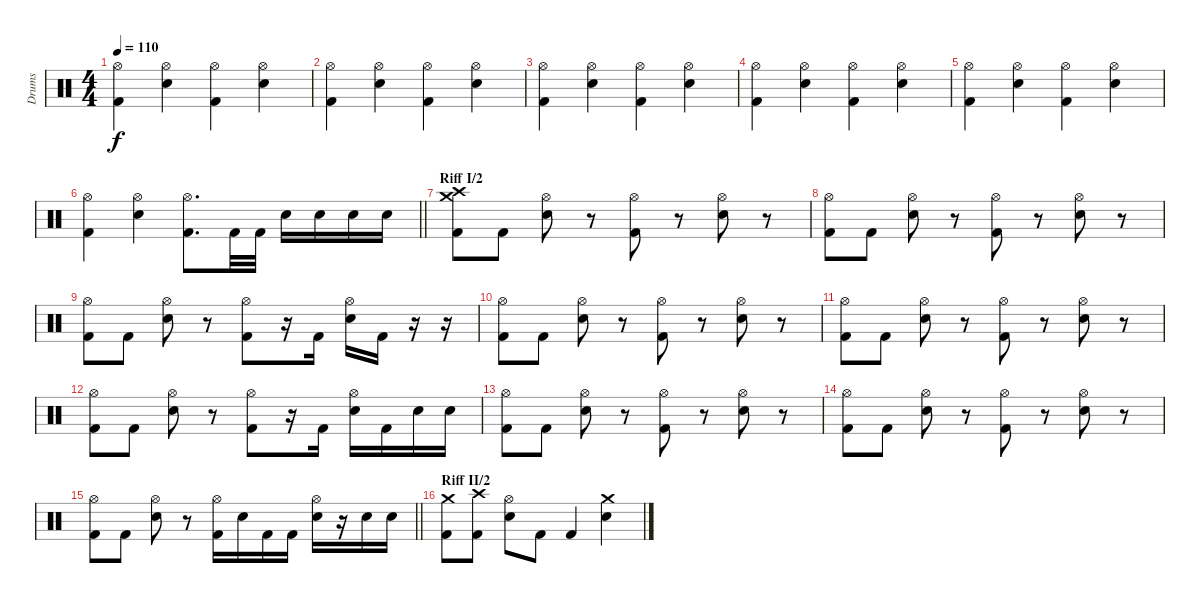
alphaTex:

\track ("Drums" "Drums") {instrument percussion}
\staff {score}
\articulation defaults
\ts (4 4)
\tempo 110
\clef neutral
\ks c
("Hi-Hat (open)" "Kick (hit) 2").4{dy f} ("Hi-Hat (open)" "Snare (hit) 2").4 ("Hi-Hat (open)" "Kick (hit) 2").4 ("Hi-Hat (open)" "Snare (hit) 2").4 |
("Hi-Hat (open)" "Kick (hit) 2").4 ("Hi-Hat (open)" "Snare (hit) 2").4 ("Hi-Hat (open)" "Kick (hit) 2").4 ("Hi-Hat (open)" "Snare (hit) 2").4 |
("Hi-Hat (open)" "Kick (hit) 2").4 ("Hi-Hat (open)" "Snare (hit) 2").4 ("Hi-Hat (open)" "Kick (hit) 2").4 ("Hi-Hat (open)" "Snare (hit) 2").4 |
("Hi-Hat (open)" "Kick (hit) 2").4 ("Hi-Hat (open)" "Snare (hit) 2").4 ("Hi-Hat (open)" "Kick (hit) 2").4 ("Hi-Hat (open)" "Snare (hit) 2").4 |
("Hi-Hat (open)" "Kick (hit) 2").4 ("Hi-Hat (open)" "Snare (hit) 2").4 ("Hi-Hat (open)" "Kick (hit) 2").4 ("Hi-Hat (open)" "Snare (hit) 2").4 |
\barLineRight lightlight
("Hi-Hat (open)" "Kick (hit) 2").4 ("Hi-Hat (open)" "Snare (hit) 2").4 ("Hi-Hat (open)" "Kick (hit) 2").8{d} "Kick (hit) 2".32 "Kick (hit) 2".32 "Snare (hit) 2".16 "Snare (hit) 2".16 "Snare (hit) 2".16 "Snare (hit) 2".16 |
\section ("" "Riff I/2")
("Crash medium (hit)" "Crash high (hit)" "Kick (hit) 2").8 "Kick (hit) 2".8 ("Hi-Hat (open)" "Snare (hit) 2").8 r.8 ("Hi-Hat (open)" "Kick (hit) 2").8 r.8 ("Hi-Hat (open)" "Snare (hit) 2").8 r.8 |
("Hi-Hat (open)" "Kick (hit) 2").8 "Kick (hit) 2".8 ("Hi-Hat (open)" "Snare (hit) 2").8 r.8 ("Hi-Hat (open)" "Kick (hit) 2").8 r.8 ("Hi-Hat (open)" "Snare (hit) 2").8 r.8 |
("Hi-Hat (open)" "Kick (hit) 2").8 "Kick (hit) 2".8 ("Hi-Hat (open)" "Snare (hit) 2").8 r.8 ("Hi-Hat (open)" "Kick (hit) 2").8 r.16 "Kick (hit) 2".16 ("Hi-Hat (open)" "Snare (hit) 2").16 "Kick (hit) 2".16 r.16 r.16 |
("Hi-Hat (open)" "Kick (hit) 2").8 "Kick (hit) 2".8 ("Hi-Hat (open)" "Snare (hit) 2").8 r.8 ("Hi-Hat (open)" "Kick (hit) 2").8 r.8 ("Hi-Hat (open)" "Snare (hit) 2").8 r.8 |
("Hi-Hat (open)" "Kick (hit) 2").8 "Kick (hit) 2".8 ("Hi-Hat (open)" "Snare (hit) 2").8 r.8 ("Hi-Hat (open)" "Kick (hit) 2").8 r.8 ("Hi-Hat (open)" "Snare (hit) 2").8 r.8 |
("Hi-Hat (open)" "Kick (hit) 2").8 "Kick (hit) 2".8 ("Hi-Hat (open)" "Snare (hit) 2").8 r.8 ("Hi-Hat (open)" "Kick (hit) 2").8 r.16 "Kick (hit) 2".16 ("Hi-Hat (open)" "Snare (hit) 2").16 "Kick (hit) 2".16 "Snare (hit) 2".16 "Snare (hit) 2".16 |
("Hi-Hat (open)" "Kick (hit) 2").8 "Kick (hit) 2".8 ("Hi-Hat (open)" "Snare (hit) 2").8 r.8 ("Hi-Hat (open)" "Kick (hit) 2").8 r.8 ("Hi-Hat (open)" "Snare (hit) 2").8 r.8 |
("Hi-Hat (open)" "Kick (hit) 2").8 "Kick (hit) 2".8 ("Hi-Hat (open)" "Snare (hit) 2").8 r.8 ("Hi-Hat (open)" "Kick (hit) 2").8 r.8 ("Hi-Hat (open)" "Snare (hit) 2").8 r.8 |
\barLineRight lightlight
("Hi-Hat (open)" "Kick (hit) 2").8 "Kick (hit) 2".8 ("Hi-Hat (open)" "Snare (hit) 2").8 r.8 ("Hi-Hat (open)" "Kick (hit) 2").16 "Snare (hit) 2".16 "Kick (hit) 2".16 "Kick (hit) 2".16 ("Hi-Hat (open)" "Snare (hit) 2").16 r.16 "Snare (hit) 2".16 "Snare (hit) 2".16 |
\section ("" "Riff II/2")
("Crash medium (hit)" "Kick (hit) 2").8 ("Crash high (hit)" "Kick (hit) 2").8 ("Hi-Hat (open)" "Snare (hit) 2").8 "Kick (hit) 2".8 "Kick (hit) 2".4 ("Crash medium (hit)" "Snare (hit) 2").4
